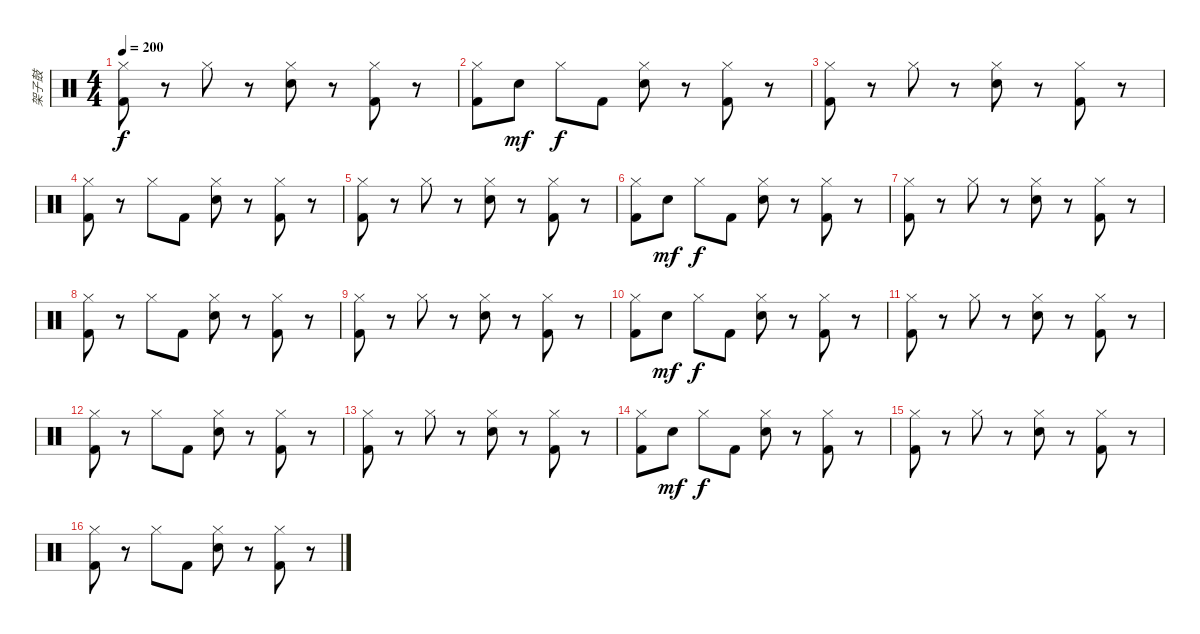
\track ("架子鼓" "架子鼓") {instrument percussion}
\staff {score}
\articulation defaults
\ts (4 4)
\tempo 200
\clef neutral
\ks c
("Kick (hit) 2" "Hi-Hat (closed)").8{dy f} r.8 "Hi-Hat (closed)".8 r.8 ("Snare (hit) 2" "Hi-Hat (closed)").8 r.8 ("Hi-Hat (closed)" "Kick (hit) 2").8 r.8 |
("Kick (hit) 2" "Hi-Hat (closed)").8 "Snare (hit) 2".8{dy mf} "Hi-Hat (closed)".8{dy f} "Kick (hit) 2".8 ("Snare (hit) 2" "Hi-Hat (closed)").8 r.8 ("Kick (hit) 2" "Hi-Hat (closed)").8 r.8 |
("Kick (hit) 2" "Hi-Hat (closed)").8 r.8 "Hi-Hat (closed)".8 r.8 ("Snare (hit) 2" "Hi-Hat (closed)").8 r.8 ("Hi-Hat (closed)" "Kick (hit) 2").8 r.8 |
("Kick (hit) 2" "Hi-Hat (closed)").8 r.8 "Hi-Hat (closed)".8 "Kick (hit) 2".8 ("Snare (hit) 2" "Hi-Hat (closed)").8 r.8 ("Kick (hit) 2" "Hi-Hat (closed)").8 r.8 |
("Kick (hit) 2" "Hi-Hat (closed)").8 r.8 "Hi-Hat (closed)".8 r.8 ("Snare (hit) 2" "Hi-Hat (closed)").8 r.8 ("Hi-Hat (closed)" "Kick (hit) 2").8 r.8 |
("Kick (hit) 2" "Hi-Hat (closed)").8 "Snare (hit) 2".8{dy mf} "Hi-Hat (closed)".8{dy f} "Kick (hit) 2".8 ("Snare (hit) 2" "Hi-Hat (closed)").8 r.8 ("Kick (hit) 2" "Hi-Hat (closed)").8 r.8 |
("Kick (hit) 2" "Hi-Hat (closed)").8 r.8 "Hi-Hat (closed)".8 r.8 ("Snare (hit) 2" "Hi-Hat (closed)").8 r.8 ("Hi-Hat (closed)" "Kick (hit) 2").8 r.8 |
("Kick (hit) 2" "Hi-Hat (closed)").8 r.8 "Hi-Hat (closed)".8 "Kick (hit) 2".8 ("Snare (hit) 2" "Hi-Hat (closed)").8 r.8 ("Kick (hit) 2" "Hi-Hat (closed)").8 r.8 |
("Kick (hit) 2" "Hi-Hat (closed)").8 r.8 "Hi-Hat (closed)".8 r.8 ("Snare (hit) 2" "Hi-Hat (closed)").8 r.8 ("Hi-Hat (closed)" "Kick (hit) 2").8 r.8 |
("Kick (hit) 2" "Hi-Hat (closed)").8 "Snare (hit) 2".8{dy mf} "Hi-Hat (closed)".8{dy f} "Kick (hit) 2".8 ("Snare (hit) 2" "Hi-Hat (closed)").8 r.8 ("Kick (hit) 2" "Hi-Hat (closed)").8 r.8 |
("Kick (hit) 2" "Hi-Hat (closed)").8 r.8 "Hi-Hat (closed)".8 r.8 ("Snare (hit) 2" "Hi-Hat (closed)").8 r.8 ("Hi-Hat (closed)" "Kick (hit) 2").8 r.8 |
("Kick (hit) 2" "Hi-Hat (closed)").8 r.8 "Hi-Hat (closed)".8 "Kick (hit) 2".8 ("Snare (hit) 2" "Hi-Hat (closed)").8 r.8 ("Kick (hit) 2" "Hi-Hat (closed)").8 r.8 |
("Kick (hit) 2" "Hi-Hat (closed)").8 r.8 "Hi-Hat (closed)".8 r.8 ("Snare (hit) 2" "Hi-Hat (closed)").8 r.8 ("Hi-Hat (closed)" "Kick (hit) 2").8 r.8 |
("Kick (hit) 2" "Hi-Hat (closed)").8 "Snare (hit) 2".8{dy mf} "Hi-Hat (closed)".8{dy f} "Kick (hit) 2".8 ("Snare (hit) 2" "Hi-Hat (closed)").8 r.8 ("Kick (hit) 2" "Hi-Hat (closed)").8 r.8 |
("Kick (hit) 2" "Hi-Hat (closed)").8 r.8 "Hi-Hat (closed)".8 r.8 ("Snare (hit) 2" "Hi-Hat (closed)").8 r.8 ("Hi-Hat (closed)" "Kick (hit) 2").8 r.8 |
("Kick (hit) 2" "Hi-Hat (closed)").8 r.8 "Hi-Hat (closed)".8 "Kick (hit) 2".8 ("Snare (hit) 2" "Hi-Hat (closed)").8 r.8 ("Kick (hit) 2" "Hi-Hat (closed)").8 r.8
